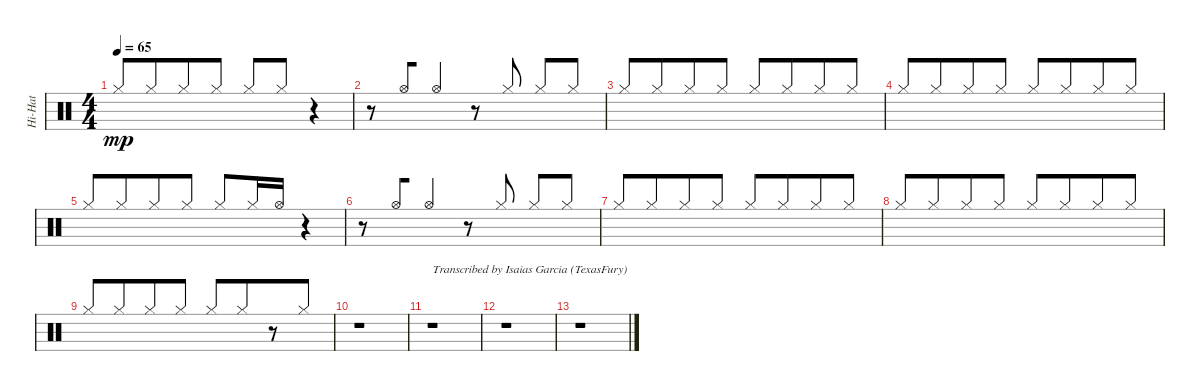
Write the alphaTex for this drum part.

\track ("Hi-Hat" "Hi-Hat") {instrument percussion}
\staff {score}
\articulation defaults
\ts (4 4)
\tempo 65
\clef neutral
\ks c "Hi-Hat (closed)".8{dy mp beam Up} "Hi-Hat (closed)".8{beam Up beam merge} "Hi-Hat (closed)".8{beam Up} "Hi-Hat (closed)".8{beam Up} "Hi-Hat (closed)".8{beam Up} "Hi-Hat (closed)".8{beam Up}
r.4 |
r.8 "Hi-Hat (open)".8{beam Up beam merge} "Hi-Hat (open)".4{beam Up} r.8 "Hi-Hat (closed)".8{beam Up} "Hi-Hat (closed)".8{beam Up} "Hi-Hat (closed)".8{beam Up} |
"Hi-Hat (closed)".8{beam Up} "Hi-Hat (closed)".8{beam Up beam merge} "Hi-Hat (closed)".8{beam Up} "Hi-Hat (closed)".8{beam Up} "Hi-Hat (closed)".8{beam Up} "Hi-Hat (closed)".8{beam Up beam merge} "Hi-Hat (closed)".8{beam Up} "Hi-Hat (closed)".8{beam Up} |
"Hi-Hat (closed)".8{beam Up} "Hi-Hat (closed)".8{beam Up beam merge} "Hi-Hat (closed)".8{beam Up} "Hi-Hat (closed)".8{beam Up} "Hi-Hat (closed)".8{beam Up} "Hi-Hat (closed)".8{beam Up beam merge} "Hi-Hat (closed)".8{beam Up} "Hi-Hat (closed)".8{beam Up} |
"Hi-Hat (closed)".8{beam Up} "Hi-Hat (closed)".8{beam Up beam merge} "Hi-Hat (closed)".8{beam Up} "Hi-Hat (closed)".8{beam Up} "Hi-Hat (closed)".8{beam Up} "Hi-Hat (closed)".16{beam Up} "Hi-Hat (open)".16{beam Up} r.4 |
r.8 "Hi-Hat (open)".8{beam Up beam merge} "Hi-Hat (open)".4{beam Up} r.8 "Hi-Hat (closed)".8{beam Up} "Hi-Hat (closed)".8{beam Up} "Hi-Hat (closed)".8{beam Up} |
"Hi-Hat (closed)".8{beam Up} "Hi-Hat (closed)".8{beam Up beam merge} "Hi-Hat (closed)".8{beam Up} "Hi-Hat (closed)".8{beam Up} "Hi-Hat (closed)".8{beam Up} "Hi-Hat (closed)".8{beam Up beam merge} "Hi-Hat (closed)".8{beam Up} "Hi-Hat (closed)".8{beam Up} |
"Hi-Hat (closed)".8{beam Up} "Hi-Hat (closed)".8{beam Up beam merge} "Hi-Hat (closed)".8{beam Up} "Hi-Hat (closed)".8{beam Up} "Hi-Hat (closed)".8{beam Up} "Hi-Hat (closed)".8{beam Up beam merge} "Hi-Hat (closed)".8{beam Up} "Hi-Hat (closed)".8{beam Up} |
"Hi-Hat (closed)".8{beam Up} "Hi-Hat (closed)".8{beam Up beam merge} "Hi-Hat (closed)".8{beam Up} "Hi-Hat (closed)".8{beam Up} "Hi-Hat (closed)".8{beam Up} "Hi-Hat (closed)".8{beam Up beam merge} r.8 "Hi-Hat (closed)".8{beam Up} |
r.1 |
r.1{txt "Transcribed by Isaias Garcia (TexasFury)"} |
r.1 |
r.1
